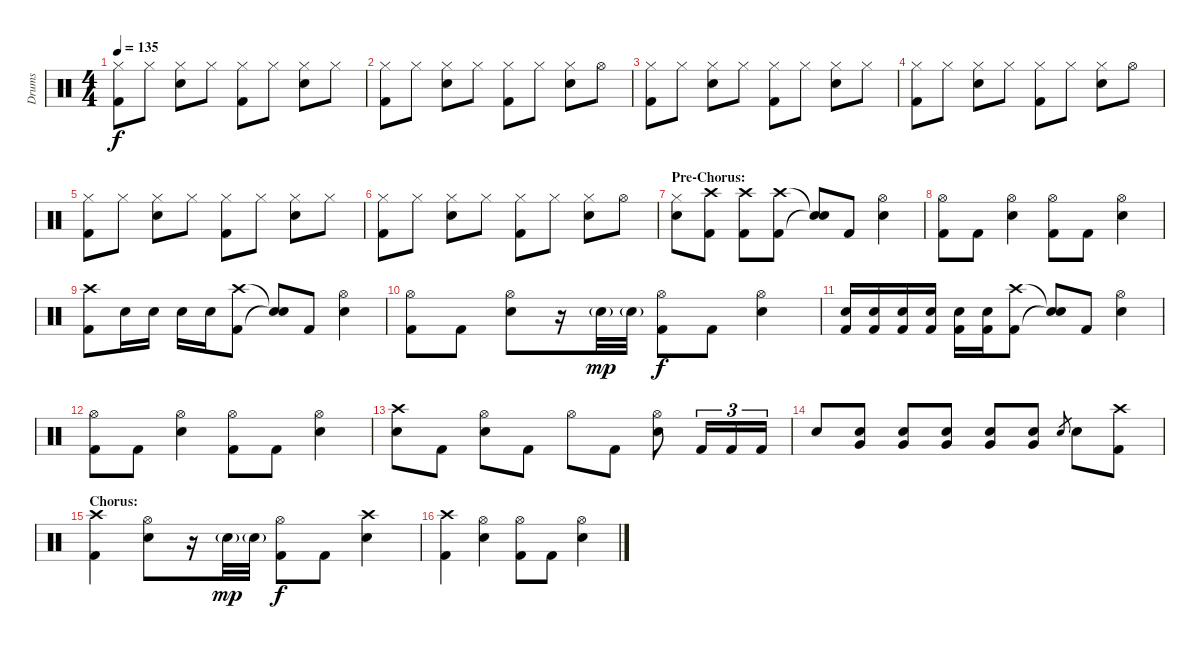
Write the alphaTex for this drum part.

\track ("Drums" "Drums") {instrument percussion}
\staff {score}
\articulation defaults
\ts (4 4)
\tempo 135
\clef neutral
\ks c
("Hi-Hat (closed)" "Kick (hit) 2").8{dy f} "Hi-Hat (closed)".8 ("Hi-Hat (closed)" "Snare (hit) 2").8 "Hi-Hat (closed)".8 ("Hi-Hat (closed)" "Kick (hit) 2").8 "Hi-Hat (closed)".8 ("Hi-Hat (closed)" "Snare (hit) 2").8 "Hi-Hat (closed)".8 |
("Hi-Hat (closed)" "Kick (hit) 2").8 "Hi-Hat (closed)".8 ("Hi-Hat (closed)" "Snare (hit) 2").8 "Hi-Hat (closed)".8 ("Hi-Hat (closed)" "Kick (hit) 2").8 "Hi-Hat (closed)".8 ("Hi-Hat (closed)" "Snare (hit) 2").8 "Hi-Hat (open)".8 |
("Hi-Hat (closed)" "Kick (hit) 2").8 "Hi-Hat (closed)".8 ("Hi-Hat (closed)" "Snare (hit) 2").8 "Hi-Hat (closed)".8 ("Hi-Hat (closed)" "Kick (hit) 2").8 "Hi-Hat (closed)".8 ("Hi-Hat (closed)" "Snare (hit) 2").8 "Hi-Hat (closed)".8 |
("Hi-Hat (closed)" "Kick (hit) 2").8 "Hi-Hat (closed)".8 ("Hi-Hat (closed)" "Snare (hit) 2").8 "Hi-Hat (closed)".8 ("Hi-Hat (closed)" "Kick (hit) 2").8 "Hi-Hat (closed)".8 ("Hi-Hat (closed)" "Snare (hit) 2").8 "Hi-Hat (open)".8 |
("Hi-Hat (closed)" "Kick (hit) 2").8 "Hi-Hat (closed)".8 ("Hi-Hat (closed)" "Snare (hit) 2").8 "Hi-Hat (closed)".8 ("Hi-Hat (closed)" "Kick (hit) 2").8 "Hi-Hat (closed)".8 ("Hi-Hat (closed)" "Snare (hit) 2").8 "Hi-Hat (closed)".8 |
("Hi-Hat (closed)" "Kick (hit) 2").8 "Hi-Hat (closed)".8 ("Hi-Hat (closed)" "Snare (hit) 2").8 "Hi-Hat (closed)".8 ("Hi-Hat (closed)" "Kick (hit) 2").8 "Hi-Hat (closed)".8 ("Hi-Hat (closed)" "Snare (hit) 2").8 "Hi-Hat (open)".8 |
\section ("" "Pre-Chorus:")
("Hi-Hat (closed)" "Snare (hit) 2").8 ("Crash high (hit)" "Kick (hit) 2").8 ("Crash high (hit)" "Kick (hit) 2").8 ("Crash high (hit)" "Kick (hit) 2").8 ("Snare (hit)"{t} "Snare (hit)"{t}).8 "Kick (hit) 2".8 ("Hi-Hat (open)" "Snare (hit) 2").4 |
("Hi-Hat (open)" "Kick (hit) 2").8 "Kick (hit) 2".8 ("Hi-Hat (open)" "Snare (hit) 2").4 ("Hi-Hat (open)" "Kick (hit) 2").8 "Kick (hit) 2".8 ("Hi-Hat (open)" "Snare (hit) 2").4 |
("Crash high (hit)" "Kick (hit) 2").8 "Snare (hit) 2".16 "Snare (hit) 2".16 "Snare (hit) 2".16 "Snare (hit) 2".16 ("Crash high (hit)" "Kick (hit) 2").8 ("Snare (hit)"{t} "Snare (hit)"{t}).8 "Kick (hit) 2".8 ("Hi-Hat (open)" "Snare (hit) 2").4 |
("Hi-Hat (open)" "Kick (hit) 2").8 "Kick (hit) 2".8 ("Hi-Hat (open)" "Snare (hit) 2").8 r.16 "Snare (hit) 2"{g}.32{dy mp} "Snare (hit) 2"{g}.32 ("Hi-Hat (open)" "Kick (hit) 2").8{dy f} "Kick (hit) 2".8 ("Hi-Hat (open)" "Snare (hit) 2").4 |
("Snare (hit) 2" "Kick (hit) 2").16 ("Snare (hit) 2" "Kick (hit) 2").16 ("Snare (hit) 2" "Kick (hit) 2").16 ("Snare (hit) 2" "Kick (hit) 2").16 ("Snare (hit) 2" "Kick (hit) 2").16 ("Snare (hit) 2" "Kick (hit) 2").16 ("Crash high (hit)" "Kick (hit) 2").8 ("Snare (hit)"{t} "Snare (hit)"{t}).8 "Kick (hit) 2".8 ("Hi-Hat (open)" "Snare (hit) 2").4 |
("Hi-Hat (open)" "Kick (hit) 2").8 "Kick (hit) 2".8 ("Hi-Hat (open)" "Snare (hit) 2").4 ("Hi-Hat (open)" "Kick (hit) 2").8 "Kick (hit) 2".8 ("Hi-Hat (open)" "Snare (hit) 2").4 |
("Crash high (hit)" "Snare (hit) 2").8 "Kick (hit) 2".8 ("Hi-Hat (open)" "Snare (hit) 2").8 "Kick (hit) 2".8 "Hi-Hat (open)".8 "Kick (hit) 2".8 ("Hi-Hat (open)" "Snare (hit) 2").8 "Kick (hit) 2".16{tu (3 2)} "Kick (hit) 2".16{tu (3 2)} "Kick (hit) 2".16{tu (3 2)} |
"Snare (hit) 2".8 ("Very Low Tom (hit)" "Snare (hit) 2").8 ("Very Low Tom (hit)" "Snare (hit) 2").8 ("Very Low Tom (hit)" "Snare (hit) 2").8 ("Very Low Tom (hit)" "Snare (hit) 2").8 ("Very Low Tom (hit)" "Snare (hit) 2").8 "Snare (hit) 2".8{gr} "Snare (hit) 2".8 ("Crash high (hit)" "Kick (hit) 2").8 |
\section ("" "Chorus:")
("Crash high (hit)" "Kick (hit) 2").4 ("Hi-Hat (open)" "Snare (hit) 2").8 r.16 "Snare (hit) 2"{g}.32{dy mp} "Snare (hit) 2"{g}.32 ("Hi-Hat (open)" "Kick (hit) 2").8{dy f} "Kick (hit) 2".8 ("Crash high (hit)" "Snare (hit) 2").4 |
("Crash high (hit)" "Kick (hit) 2").4 ("Hi-Hat (open)" "Snare (hit) 2").4 ("Hi-Hat (open)" "Kick (hit) 2").8 "Kick (hit) 2".8 ("Hi-Hat (open)" "Snare (hit) 2").4
